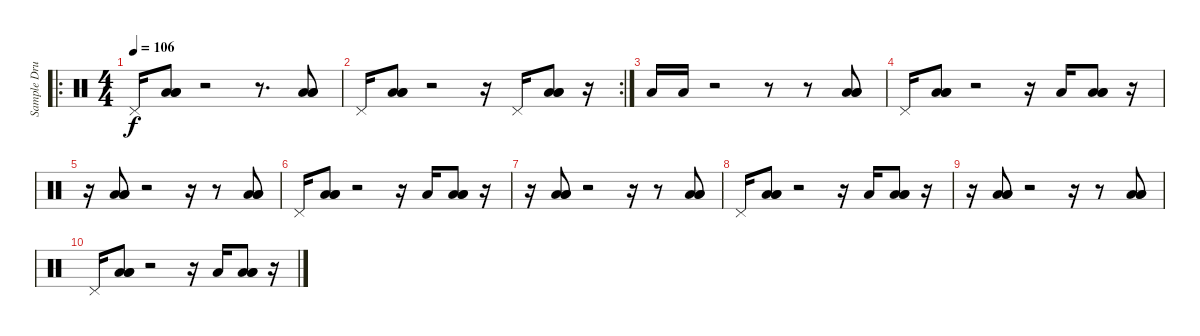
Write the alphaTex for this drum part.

\track ("Sample Drums(Lethal)" "Sample Dru") {instrument percussion}
\staff {score}
\articulation defaults
\ro
\ts (4 4)
\tempo 106
\clef neutral
\ks c "Pedal Hi-Hat (hit)".16{dy f}
("Low Floor Tom (hit)" "Low Floor Tom (hit)" "Low Floor Tom (hit)").8 r.2 r.8{d} ("Low Floor Tom (hit)" "Low Floor Tom (hit)" "Low Floor Tom (hit)").8 |
\rc 2 "Pedal Hi-Hat (hit)".16
("Low Floor Tom (hit)" "Low Floor Tom (hit)" "Low Floor Tom (hit)").8 r.2 r.16 "Pedal Hi-Hat (hit)".16 ("Low Floor Tom (hit)" "Low Floor Tom (hit)" "Low Floor Tom (hit)").8 r.16 |
"Low Floor Tom (hit)".16 "Low Floor Tom (hit)".16 r.2 r.8 r.8 ("Low Floor Tom (hit)" "Low Floor Tom (hit)" "Low Floor Tom (hit)").8 |
"Pedal Hi-Hat (hit)".16 ("Low Floor Tom (hit)" "Low Floor Tom (hit)" "Low Floor Tom (hit)").8 r.2 r.16 "Low Floor Tom (hit)".16 ("Low Floor Tom (hit)" "Low Floor Tom (hit)" "Low Floor Tom (hit)").8 r.16 |
r.16 ("Low Floor Tom (hit)" "Low Floor Tom (hit)" "Low Floor Tom (hit)").8 r.2 r.16 r.8 ("Low Floor Tom (hit)" "Low Floor Tom (hit)" "Low Floor Tom (hit)").8 |
"Pedal Hi-Hat (hit)".16 ("Low Floor Tom (hit)" "Low Floor Tom (hit)" "Low Floor Tom (hit)").8 r.2 r.16 "Low Floor Tom (hit)".16 ("Low Floor Tom (hit)" "Low Floor Tom (hit)" "Low Floor Tom (hit)").8 r.16 |
r.16 ("Low Floor Tom (hit)" "Low Floor Tom (hit)" "Low Floor Tom (hit)").8 r.2 r.16 r.8 ("Low Floor Tom (hit)" "Low Floor Tom (hit)" "Low Floor Tom (hit)").8 |
"Pedal Hi-Hat (hit)".16 ("Low Floor Tom (hit)" "Low Floor Tom (hit)" "Low Floor Tom (hit)").8 r.2 r.16 "Low Floor Tom (hit)".16 ("Low Floor Tom (hit)" "Low Floor Tom (hit)" "Low Floor Tom (hit)").8 r.16 |
r.16 ("Low Floor Tom (hit)" "Low Floor Tom (hit)" "Low Floor Tom (hit)").8 r.2 r.16 r.8 ("Low Floor Tom (hit)" "Low Floor Tom (hit)" "Low Floor Tom (hit)").8 |
"Pedal Hi-Hat (hit)".16 ("Low Floor Tom (hit)" "Low Floor Tom (hit)" "Low Floor Tom (hit)").8 r.2 r.16 "Low Floor Tom (hit)".16 ("Low Floor Tom (hit)" "Low Floor Tom (hit)" "Low Floor Tom (hit)").8 r.16
